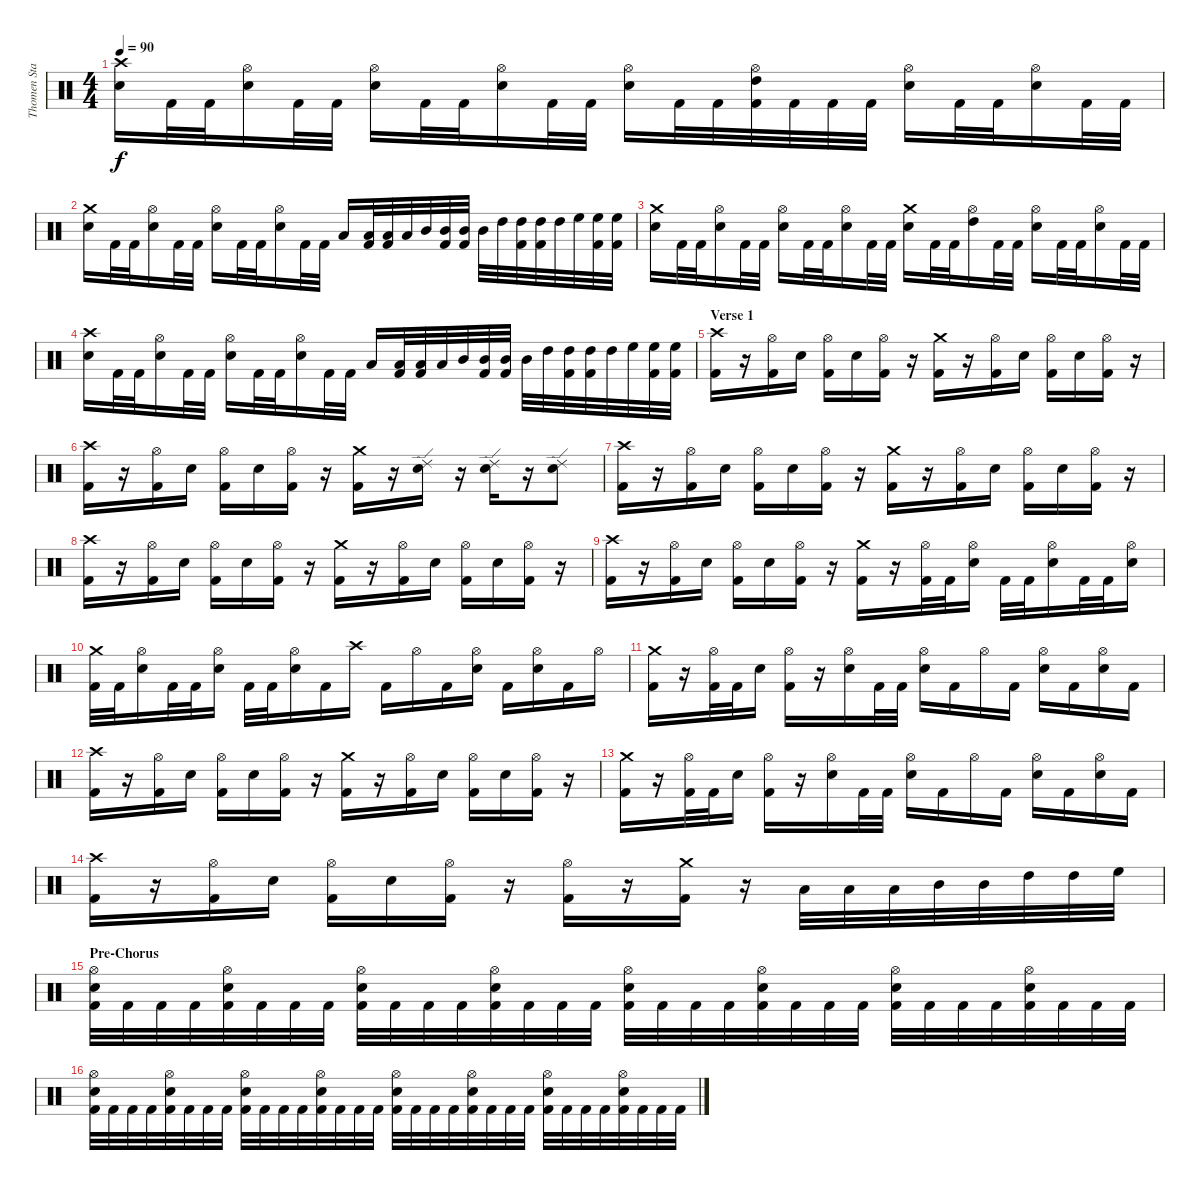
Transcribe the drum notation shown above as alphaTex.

\track ("Thomen Stauch" "Thomen Sta") {instrument percussion}
\staff {score}
\articulation defaults
\ts (4 4)
\tempo 90
\clef neutral
\ks c
("Snare (hit) 2" "Crash high (hit)").16{dy f} "Kick (hit) 2".32 "Kick (hit) 2".32 ("Snare (hit) 2" "Hi-Hat (open)").16 "Kick (hit) 2".32 "Kick (hit) 2".32 ("Snare (hit) 2" "Hi-Hat (open)").16 "Kick (hit) 2".32 "Kick (hit) 2".32 ("Snare (hit) 2" "Hi-Hat (open)").16 "Kick (hit) 2".32 "Kick (hit) 2".32 ("Snare (hit) 2" "Hi-Hat (open)").16 "Kick (hit) 2".32 "Kick (hit) 2".32 ("Kick (hit) 2" "High Tom (hit)" "Hi-Hat (open)").32 "Kick (hit) 2".32 "Kick (hit) 2".32 "Kick (hit) 2".32 ("Snare (hit) 2" "Hi-Hat (open)").16 "Kick (hit) 2".32 "Kick (hit) 2".32 ("Snare (hit) 2" "Hi-Hat (open)").16 "Kick (hit) 2".32 "Kick (hit) 2".32 |
("Snare (hit) 2" "Crash medium (hit)").16 "Kick (hit) 2".32 "Kick (hit) 2".32 ("Snare (hit) 2" "Hi-Hat (open)").16 "Kick (hit) 2".32 "Kick (hit) 2".32 ("Snare (hit) 2" "Hi-Hat (open)").16 "Kick (hit) 2".32 "Kick (hit) 2".32 ("Snare (hit) 2" "Hi-Hat (open)").16 "Kick (hit) 2".32 "Kick (hit) 2".32 "Low Tom (hit)".16 ("Kick (hit) 2" "Low Tom (hit)").32 ("Kick (hit) 2" "Low Tom (hit)").32 "Low Tom (hit)".32 "Mid Tom (hit)".32 ("Kick (hit) 2" "Mid Tom (hit)").32 ("Kick (hit) 2" "Mid Tom (hit)").32 "Mid Tom (hit)".32 "High Tom (hit)".32 ("Kick (hit) 2" "High Tom (hit)").32 ("Kick (hit) 2" "High Tom (hit)").32 "High Tom (hit)".32 "High Floor Tom (hit)".32 ("Kick (hit) 2" "High Floor Tom (hit)").32 ("Kick (hit) 2" "High Floor Tom (hit)").32 |
("Snare (hit) 2" "Crash medium (hit)").16 "Kick (hit) 2".32 "Kick (hit) 2".32 ("Snare (hit) 2" "Hi-Hat (open)").16 "Kick (hit) 2".32 "Kick (hit) 2".32 ("Snare (hit) 2" "Hi-Hat (open)").16 "Kick (hit) 2".32 "Kick (hit) 2".32 ("Snare (hit) 2" "Hi-Hat (open)").16 "Kick (hit) 2".32 "Kick (hit) 2".32 ("Snare (hit) 2" "Crash medium (hit)").16 "Kick (hit) 2".32 "Kick (hit) 2".32 ("High Tom (hit)" "Hi-Hat (open)").16 "Kick (hit) 2".32 "Kick (hit) 2".32 ("Snare (hit) 2" "Hi-Hat (open)").16 "Kick (hit) 2".32 "Kick (hit) 2".32 ("Snare (hit) 2" "Hi-Hat (open)").16 "Kick (hit) 2".32 "Kick (hit) 2".32 |
("Snare (hit) 2" "Crash high (hit)").16 "Kick (hit) 2".32 "Kick (hit) 2".32 ("Snare (hit) 2" "Hi-Hat (open)").16 "Kick (hit) 2".32 "Kick (hit) 2".32 ("Snare (hit) 2" "Hi-Hat (open)").16 "Kick (hit) 2".32 "Kick (hit) 2".32 ("Snare (hit) 2" "Hi-Hat (open)").16 "Kick (hit) 2".32 "Kick (hit) 2".32 "Low Tom (hit)".16 ("Kick (hit) 2" "Low Tom (hit)").32 ("Kick (hit) 2" "Low Tom (hit)").32 "Low Tom (hit)".32 "Mid Tom (hit)".32 ("Kick (hit) 2" "Mid Tom (hit)").32 ("Kick (hit) 2" "Mid Tom (hit)").32 "Mid Tom (hit)".32 "High Tom (hit)".32 ("Kick (hit) 2" "High Tom (hit)").32 ("Kick (hit) 2" "High Tom (hit)").32 "High Tom (hit)".32 "High Floor Tom (hit)".32 ("Kick (hit) 2" "High Floor Tom (hit)").32 ("Kick (hit) 2" "High Floor Tom (hit)").32 |
\section ("" "Verse 1")
("Kick (hit) 2" "Crash high (hit)").16 r.16 ("Kick (hit) 2" "Hi-Hat (open)").16 "Snare (hit) 2".16 ("Kick (hit) 2" "Hi-Hat (open)").16 "Snare (hit) 2".16 ("Kick (hit) 2" "Hi-Hat (open)").16 r.16 ("Kick (hit) 2" "Crash medium (hit)").16 r.16 ("Kick (hit) 2" "Hi-Hat (open)").16 "Snare (hit) 2".16 ("Kick (hit) 2" "Hi-Hat (open)").16 "Snare (hit) 2".16 ("Kick (hit) 2" "Hi-Hat (open)").16 r.16 |
("Kick (hit) 2" "Crash high (hit)").16 r.16 ("Kick (hit) 2" "Hi-Hat (open)").16 "Snare (hit) 2".16 ("Kick (hit) 2" "Hi-Hat (open)").16 "Snare (hit) 2".16 ("Kick (hit) 2" "Hi-Hat (open)").16 r.16 ("Kick (hit) 2" "Crash medium (hit)").16 r.16 ("Snare (hit) 2" "Ride (edge) 2").16 r.16 ("Snare (hit) 2" "Ride (edge) 2").16 r.16 ("Snare (hit) 2" "Ride (edge) 2").8 |
("Kick (hit) 2" "Crash high (hit)").16 r.16 ("Kick (hit) 2" "Hi-Hat (open)").16 "Snare (hit) 2".16 ("Kick (hit) 2" "Hi-Hat (open)").16 "Snare (hit) 2".16 ("Kick (hit) 2" "Hi-Hat (open)").16 r.16 ("Kick (hit) 2" "Crash medium (hit)").16 r.16 ("Kick (hit) 2" "Hi-Hat (open)").16 "Snare (hit) 2".16 ("Kick (hit) 2" "Hi-Hat (open)").16 "Snare (hit) 2".16 ("Kick (hit) 2" "Hi-Hat (open)").16 r.16 |
("Kick (hit) 2" "Crash high (hit)").16 r.16 ("Kick (hit) 2" "Hi-Hat (open)").16 "Snare (hit) 2".16 ("Kick (hit) 2" "Hi-Hat (open)").16 "Snare (hit) 2".16 ("Kick (hit) 2" "Hi-Hat (open)").16 r.16 ("Kick (hit) 2" "Crash medium (hit)").16 r.16 ("Kick (hit) 2" "Hi-Hat (open)").16 "Snare (hit) 2".16 ("Kick (hit) 2" "Hi-Hat (open)").16 "Snare (hit) 2".16 ("Kick (hit) 2" "Hi-Hat (open)").16 r.16 |
("Kick (hit) 2" "Crash high (hit)").16 r.16 ("Kick (hit) 2" "Hi-Hat (open)").16 "Snare (hit) 2".16 ("Kick (hit) 2" "Hi-Hat (open)").16 "Snare (hit) 2".16 ("Kick (hit) 2" "Hi-Hat (open)").16 r.16 ("Kick (hit) 2" "Crash medium (hit)").16 r.16 ("Kick (hit) 2" "Hi-Hat (open)").32 "Kick (hit) 2".32 ("Snare (hit) 2" "Hi-Hat (open)").16 "Kick (hit) 2".32 "Kick (hit) 2".32 ("Snare (hit) 2" "Hi-Hat (open)").16 "Kick (hit) 2".32 "Kick (hit) 2".32 ("Snare (hit) 2" "Hi-Hat (open)").16 |
("Kick (hit) 2" "Crash medium (hit)").32 "Kick (hit) 2".32 ("Snare (hit) 2" "Hi-Hat (open)").16 "Kick (hit) 2".32 "Kick (hit) 2".32 ("Snare (hit) 2" "Hi-Hat (open)").16 "Kick (hit) 2".32 "Kick (hit) 2".32 ("Snare (hit) 2" "Hi-Hat (open)").16 "Kick (hit) 2".16 "Crash high (hit)".16 "Kick (hit) 2".16 "Hi-Hat (open)".16 "Kick (hit) 2".16 ("Snare (hit) 2" "Hi-Hat (open)").16 "Kick (hit) 2".16 ("Snare (hit) 2" "Hi-Hat (open)").16 "Kick (hit) 2".16 "Hi-Hat (open)".16 |
("Kick (hit) 2" "Crash medium (hit)").16 r.16 ("Kick (hit) 2" "Hi-Hat (open)").32 "Kick (hit) 2".32 "Snare (hit) 2".16 ("Kick (hit) 2" "Hi-Hat (open)").16 r.16 ("Snare (hit) 2" "Hi-Hat (open)").16 "Kick (hit) 2".32 "Kick (hit) 2".32 ("Snare (hit) 2" "Hi-Hat (open)").16 "Kick (hit) 2".16 "Hi-Hat (open)".16 "Kick (hit) 2".16 ("Snare (hit) 2" "Hi-Hat (open)").16 "Kick (hit) 2".16 ("Snare (hit) 2" "Hi-Hat (open)").16 "Kick (hit) 2".16 |
("Kick (hit) 2" "Crash high (hit)").16 r.16 ("Kick (hit) 2" "Hi-Hat (open)").16 "Snare (hit) 2".16 ("Kick (hit) 2" "Hi-Hat (open)").16 "Snare (hit) 2".16 ("Kick (hit) 2" "Hi-Hat (open)").16 r.16 ("Kick (hit) 2" "Crash medium (hit)").16 r.16 ("Kick (hit) 2" "Hi-Hat (open)").16 "Snare (hit) 2".16 ("Kick (hit) 2" "Hi-Hat (open)").16 "Snare (hit) 2".16 ("Kick (hit) 2" "Hi-Hat (open)").16 r.16 |
("Kick (hit) 2" "Crash medium (hit)").16 r.16 ("Kick (hit) 2" "Hi-Hat (open)").32 "Kick (hit) 2".32 "Snare (hit) 2".16 ("Kick (hit) 2" "Hi-Hat (open)").16 r.16 ("Snare (hit) 2" "Hi-Hat (open)").16 "Kick (hit) 2".32 "Kick (hit) 2".32 ("Snare (hit) 2" "Hi-Hat (open)").16 "Kick (hit) 2".16 "Hi-Hat (open)".16 "Kick (hit) 2".16 ("Snare (hit) 2" "Hi-Hat (open)").16 "Kick (hit) 2".16 ("Snare (hit) 2" "Hi-Hat (open)").16 "Kick (hit) 2".16 |
("Kick (hit) 2" "Crash high (hit)").16 r.16 ("Kick (hit) 2" "Hi-Hat (open)").16 "Snare (hit) 2".16 ("Kick (hit) 2" "Hi-Hat (open)").16 "Snare (hit) 2".16 ("Kick (hit) 2" "Hi-Hat (open)").16 r.16 ("Kick (hit) 2" "Hi-Hat (open)").16 r.16 ("Kick (hit) 2" "Crash medium (hit)").16 r.16 "Low Tom (hit)".32 "Low Tom (hit)".32 "Low Tom (hit)".32 "Mid Tom (hit)".32 "Mid Tom (hit)".32 "High Tom (hit)".32 "High Tom (hit)".32 "High Floor Tom (hit)".32 |
\section ("" "Pre-Chorus")
("Kick (hit) 2" "Snare (hit) 2" "Hi-Hat (open)").32 "Kick (hit) 2".32 "Kick (hit) 2".32 "Kick (hit) 2".32 ("Kick (hit) 2" "Snare (hit) 2" "Hi-Hat (open)").32 "Kick (hit) 2".32 "Kick (hit) 2".32 "Kick (hit) 2".32 ("Kick (hit) 2" "Snare (hit) 2" "Hi-Hat (open)").32 "Kick (hit) 2".32 "Kick (hit) 2".32 "Kick (hit) 2".32 ("Kick (hit) 2" "Snare (hit) 2" "Hi-Hat (open)").32 "Kick (hit) 2".32 "Kick (hit) 2".32 "Kick (hit) 2".32 ("Kick (hit) 2" "Snare (hit) 2" "Hi-Hat (open)").32 "Kick (hit) 2".32 "Kick (hit) 2".32 "Kick (hit) 2".32 ("Kick (hit) 2" "Snare (hit) 2" "Hi-Hat (open)").32 "Kick (hit) 2".32 "Kick (hit) 2".32 "Kick (hit) 2".32 ("Kick (hit) 2" "Snare (hit) 2" "Hi-Hat (open)").32 "Kick (hit) 2".32 "Kick (hit) 2".32 "Kick (hit) 2".32 ("Kick (hit) 2" "Snare (hit) 2" "Hi-Hat (open)").32 "Kick (hit) 2".32 "Kick (hit) 2".32 "Kick (hit) 2".32 |
("Kick (hit) 2" "Snare (hit) 2" "Hi-Hat (open)").32 "Kick (hit) 2".32 "Kick (hit) 2".32 "Kick (hit) 2".32 ("Kick (hit) 2" "Snare (hit) 2" "Hi-Hat (open)").32 "Kick (hit) 2".32 "Kick (hit) 2".32 "Kick (hit) 2".32 ("Kick (hit) 2" "Snare (hit) 2" "Hi-Hat (open)").32 "Kick (hit) 2".32 "Kick (hit) 2".32 "Kick (hit) 2".32 ("Kick (hit) 2" "Snare (hit) 2" "Hi-Hat (open)").32 "Kick (hit) 2".32 "Kick (hit) 2".32 "Kick (hit) 2".32 ("Kick (hit) 2" "Snare (hit) 2" "Hi-Hat (open)").32 "Kick (hit) 2".32 "Kick (hit) 2".32 "Kick (hit) 2".32 ("Kick (hit) 2" "Snare (hit) 2" "Hi-Hat (open)").32 "Kick (hit) 2".32 "Kick (hit) 2".32 "Kick (hit) 2".32 ("Kick (hit) 2" "Snare (hit) 2" "Hi-Hat (open)").32 "Kick (hit) 2".32 "Kick (hit) 2".32 "Kick (hit) 2".32 ("Kick (hit) 2" "Snare (hit) 2" "Hi-Hat (open)").32 "Kick (hit) 2".32 "Kick (hit) 2".32 "Kick (hit) 2".32
